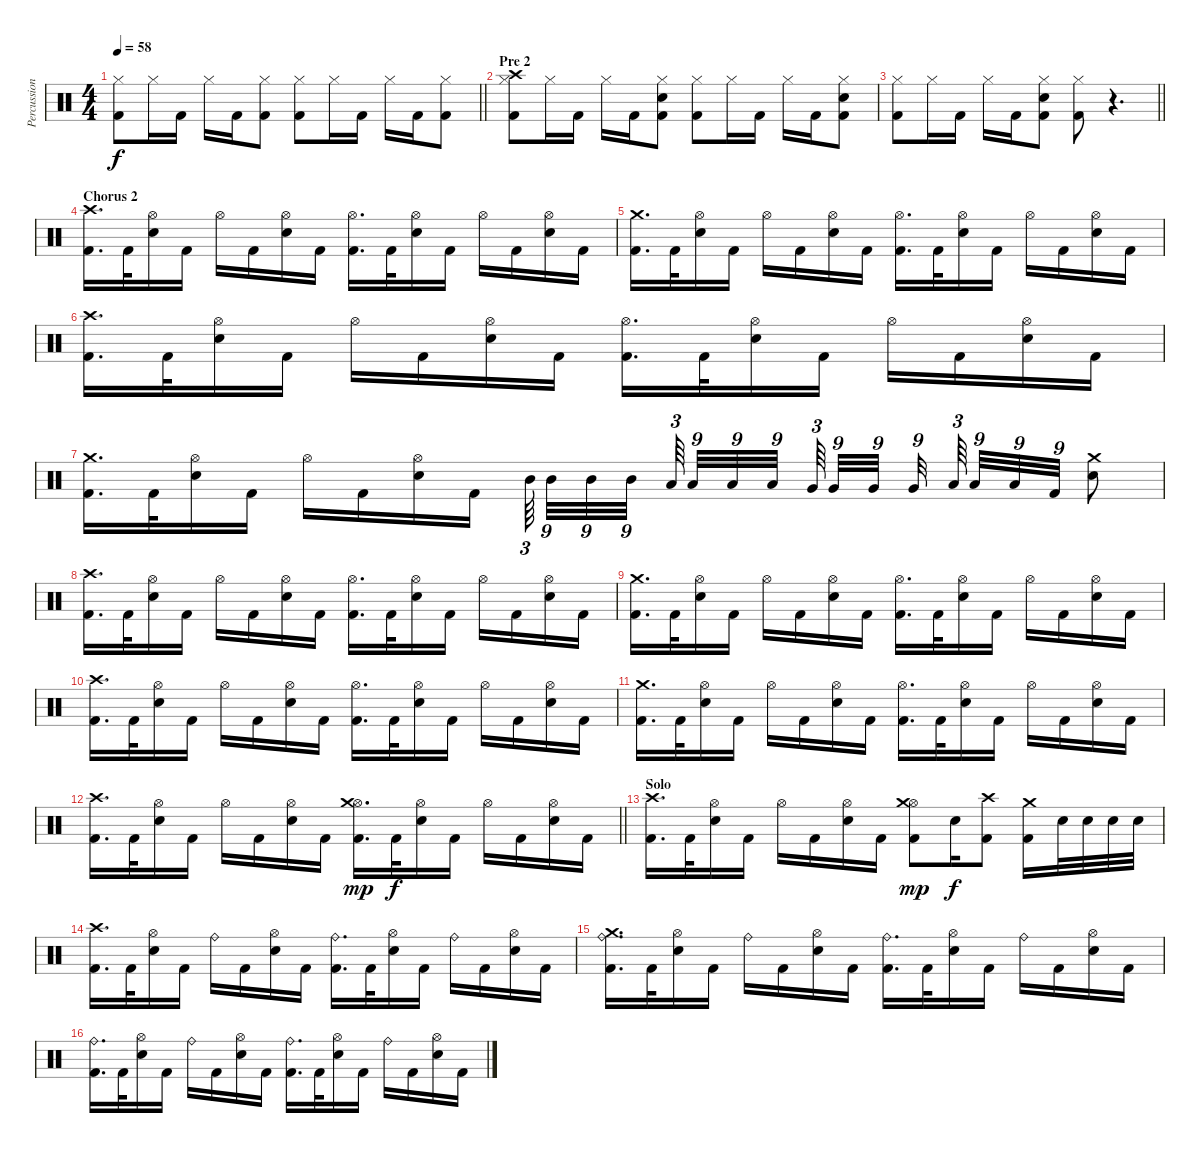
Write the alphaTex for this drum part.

\track ("Percussion 1" "Percussion") {instrument percussion}
\staff {score}
\articulation defaults
\ts (4 4)
\tempo 58
\clef neutral
\barLineRight lightlight
\ks c
("Hi-Hat (closed)" "Kick (hit) 2").8{dy f} "Hi-Hat (closed)".16 "Kick (hit) 2".16 "Hi-Hat (closed)".16 "Kick (hit) 2".16 ("Hi-Hat (closed)" "Kick (hit) 2").8 ("Hi-Hat (closed)" "Kick (hit) 2").8 "Hi-Hat (closed)".16 "Kick (hit) 2".16 "Hi-Hat (closed)".16 "Kick (hit) 2".16 ("Hi-Hat (closed)" "Kick (hit) 2").8 |
\section ("" "Pre 2")
("Hi-Hat (closed)" "Crash high (hit)" "Kick (hit) 2").8 "Hi-Hat (closed)".16 "Kick (hit) 2".16 "Hi-Hat (closed)".16 "Kick (hit) 2".16 ("Hi-Hat (closed)" "Snare (hit) 2" "Kick (hit) 2").8 ("Hi-Hat (closed)" "Kick (hit) 2").8 "Hi-Hat (closed)".16 "Kick (hit) 2".16 "Hi-Hat (closed)".16 "Kick (hit) 2".16 ("Hi-Hat (closed)" "Snare (hit) 2" "Kick (hit) 2").8 |
\barLineRight lightlight
("Hi-Hat (closed)" "Kick (hit) 2").8 "Hi-Hat (closed)".16 "Kick (hit) 2".16 "Hi-Hat (closed)".16 "Kick (hit) 2".16 ("Hi-Hat (closed)" "Snare (hit) 2" "Kick (hit) 2").8 ("Hi-Hat (closed)" "Kick (hit) 2").8 r.4{d} |
\section ("" "Chorus 2")
("Crash high (hit)" "Kick (hit) 2").16{d} "Kick (hit) 2".32 ("Hi-Hat (open)" "Snare (hit) 2").16 "Kick (hit) 2".16 "Hi-Hat (open)".16 "Kick (hit) 2".16 ("Hi-Hat (open)" "Snare (hit) 2").16 "Kick (hit) 2".16 ("Hi-Hat (open)" "Kick (hit) 2").16{d} "Kick (hit) 2".32 ("Hi-Hat (open)" "Snare (hit) 2").16 "Kick (hit) 2".16 "Hi-Hat (open)".16 "Kick (hit) 2".16 ("Hi-Hat (open)" "Snare (hit) 2").16 "Kick (hit) 2".16 |
("Crash medium (hit)" "Kick (hit) 2").16{d} "Kick (hit) 2".32 ("Hi-Hat (open)" "Snare (hit) 2").16 "Kick (hit) 2".16 "Hi-Hat (open)".16 "Kick (hit) 2".16 ("Hi-Hat (open)" "Snare (hit) 2").16 "Kick (hit) 2".16 ("Hi-Hat (open)" "Kick (hit) 2").16{d} "Kick (hit) 2".32 ("Hi-Hat (open)" "Snare (hit) 2").16 "Kick (hit) 2".16 "Hi-Hat (open)".16 "Kick (hit) 2".16 ("Hi-Hat (open)" "Snare (hit) 2").16 "Kick (hit) 2".16 |
("Crash high (hit)" "Kick (hit) 2").16{d} "Kick (hit) 2".32 ("Hi-Hat (open)" "Snare (hit) 2").16 "Kick (hit) 2".16 "Hi-Hat (open)".16 "Kick (hit) 2".16 ("Hi-Hat (open)" "Snare (hit) 2").16 "Kick (hit) 2".16 ("Hi-Hat (open)" "Kick (hit) 2").16{d} "Kick (hit) 2".32 ("Hi-Hat (open)" "Snare (hit) 2").16 "Kick (hit) 2".16 "Hi-Hat (open)".16 "Kick (hit) 2".16 ("Hi-Hat (open)" "Snare (hit) 2").16 "Kick (hit) 2".16 |
("Crash medium (hit)" "Kick (hit) 2").16{d} "Kick (hit) 2".32 ("Hi-Hat (open)" "Snare (hit) 2").16 "Kick (hit) 2".16 "Hi-Hat (open)".16 "Kick (hit) 2".16 ("Hi-Hat (open)" "Snare (hit) 2").16 "Kick (hit) 2".16 "Mid Tom (hit)".64{tu (3 2)} "Mid Tom (hit)".32{tu (9 8)} "Mid Tom (hit)".32{tu (9 8)} "Mid Tom (hit)".32{tu (9 8)} "Low Tom (hit)".64{tu (3 2)} "Low Tom (hit)".32{tu (9 8)} "Low Tom (hit)".32{tu (9 8)} "Low Tom (hit)".32{tu (9 8)} "Very Low Tom (hit)".64{tu (3 2)} "Very Low Tom (hit)".32{tu (9 8)} "Very Low Tom (hit)".32{tu (9 8)} "Very Low Tom (hit)".32{tu (9 8)} "Low Floor Tom (hit)".64{tu (3 2)} "Low Floor Tom (hit)".32{tu (9 8)} "Low Floor Tom (hit)".32{tu (9 8)} "Kick (hit) 2".32{tu (9 8)} ("Snare (hit) 2" "Crash medium (hit)").8 |
("Crash high (hit)" "Kick (hit) 2").16{d} "Kick (hit) 2".32 ("Hi-Hat (open)" "Snare (hit) 2").16 "Kick (hit) 2".16 "Hi-Hat (open)".16 "Kick (hit) 2".16 ("Hi-Hat (open)" "Snare (hit) 2").16 "Kick (hit) 2".16 ("Hi-Hat (open)" "Kick (hit) 2").16{d} "Kick (hit) 2".32 ("Hi-Hat (open)" "Snare (hit) 2").16 "Kick (hit) 2".16 "Hi-Hat (open)".16 "Kick (hit) 2".16 ("Hi-Hat (open)" "Snare (hit) 2").16 "Kick (hit) 2".16 |
("Crash medium (hit)" "Kick (hit) 2").16{d} "Kick (hit) 2".32 ("Hi-Hat (open)" "Snare (hit) 2").16 "Kick (hit) 2".16 "Hi-Hat (open)".16 "Kick (hit) 2".16 ("Hi-Hat (open)" "Snare (hit) 2").16 "Kick (hit) 2".16 ("Hi-Hat (open)" "Kick (hit) 2").16{d} "Kick (hit) 2".32 ("Hi-Hat (open)" "Snare (hit) 2").16 "Kick (hit) 2".16 "Hi-Hat (open)".16 "Kick (hit) 2".16 ("Hi-Hat (open)" "Snare (hit) 2").16 "Kick (hit) 2".16 |
("Crash high (hit)" "Kick (hit) 2").16{d} "Kick (hit) 2".32 ("Hi-Hat (open)" "Snare (hit) 2").16 "Kick (hit) 2".16 "Hi-Hat (open)".16 "Kick (hit) 2".16 ("Hi-Hat (open)" "Snare (hit) 2").16 "Kick (hit) 2".16 ("Hi-Hat (open)" "Kick (hit) 2").16{d} "Kick (hit) 2".32 ("Hi-Hat (open)" "Snare (hit) 2").16 "Kick (hit) 2".16 "Hi-Hat (open)".16 "Kick (hit) 2".16 ("Hi-Hat (open)" "Snare (hit) 2").16 "Kick (hit) 2".16 |
("Crash medium (hit)" "Kick (hit) 2").16{d} "Kick (hit) 2".32 ("Hi-Hat (open)" "Snare (hit) 2").16 "Kick (hit) 2".16 "Hi-Hat (open)".16 "Kick (hit) 2".16 ("Hi-Hat (open)" "Snare (hit) 2").16 "Kick (hit) 2".16 ("Hi-Hat (open)" "Kick (hit) 2").16{d} "Kick (hit) 2".32 ("Hi-Hat (open)" "Snare (hit) 2").16 "Kick (hit) 2".16 "Hi-Hat (open)".16 "Kick (hit) 2".16 ("Hi-Hat (open)" "Snare (hit) 2").16 "Kick (hit) 2".16 |
\barLineRight lightlight
("Crash high (hit)" "Kick (hit) 2").16{d} "Kick (hit) 2".32 ("Hi-Hat (open)" "Snare (hit) 2").16 "Kick (hit) 2".16 "Hi-Hat (open)".16 "Kick (hit) 2".16 ("Hi-Hat (open)" "Snare (hit) 2").16 "Kick (hit) 2".16 ("Hi-Hat (open)" "Crash medium (hit)" "Kick (hit) 2").16{d dy mp} "Kick (hit) 2".32{dy f} ("Hi-Hat (open)" "Snare (hit) 2").16 "Kick (hit) 2".16 "Hi-Hat (open)".16 "Kick (hit) 2".16 ("Hi-Hat (open)" "Snare (hit) 2").16 "Kick (hit) 2".16 |
\section ("" "Solo")
("Crash high (hit)" "Kick (hit) 2").16{d} "Kick (hit) 2".32 ("Hi-Hat (open)" "Snare (hit) 2").16 "Kick (hit) 2".16 "Hi-Hat (open)".16 "Kick (hit) 2".16 ("Hi-Hat (open)" "Snare (hit) 2").16 "Kick (hit) 2".16 ("Hi-Hat (open)" "Crash medium (hit)" "Kick (hit) 2").8{dy mp} "Snare (hit) 2".16{dy f} ("Crash high (hit)" "Kick (hit) 2").8 ("Crash medium (hit)" "Kick (hit) 2").16 "Snare (hit) 2".32 "Snare (hit) 2".32 "Snare (hit) 2".32 "Snare (hit) 2".32 |
("Crash high (hit)" "Kick (hit) 2").16{d} "Kick (hit) 2".32 ("Hi-Hat (open)" "Snare (hit) 2").16 "Kick (hit) 2".16 "Ride (bell)".16 "Kick (hit) 2".16 ("Hi-Hat (open)" "Snare (hit) 2").16 "Kick (hit) 2".16 ("Ride (bell)" "Kick (hit) 2").16{d} "Kick (hit) 2".32 ("Hi-Hat (open)" "Snare (hit) 2").16 "Kick (hit) 2".16 "Ride (bell)".16 "Kick (hit) 2".16 ("Hi-Hat (open)" "Snare (hit) 2").16 "Kick (hit) 2".16 |
("Ride (bell)" "Crash medium (hit)" "Kick (hit) 2").16{d} "Kick (hit) 2".32 ("Hi-Hat (open)" "Snare (hit) 2").16 "Kick (hit) 2".16 "Ride (bell)".16 "Kick (hit) 2".16 ("Hi-Hat (open)" "Snare (hit) 2").16 "Kick (hit) 2".16 ("Ride (bell)" "Kick (hit) 2").16{d} "Kick (hit) 2".32 ("Hi-Hat (open)" "Snare (hit) 2").16 "Kick (hit) 2".16 "Ride (bell)".16 "Kick (hit) 2".16 ("Hi-Hat (open)" "Snare (hit) 2").16 "Kick (hit) 2".16 |
("Ride (bell)" "Kick (hit) 2").16{d} "Kick (hit) 2".32 ("Hi-Hat (open)" "Snare (hit) 2").16 "Kick (hit) 2".16 "Ride (bell)".16 "Kick (hit) 2".16 ("Hi-Hat (open)" "Snare (hit) 2").16 "Kick (hit) 2".16 ("Ride (bell)" "Kick (hit) 2").16{d} "Kick (hit) 2".32 ("Hi-Hat (open)" "Snare (hit) 2").16 "Kick (hit) 2".16 "Ride (bell)".16 "Kick (hit) 2".16 ("Hi-Hat (open)" "Snare (hit) 2").16 "Kick (hit) 2".16
